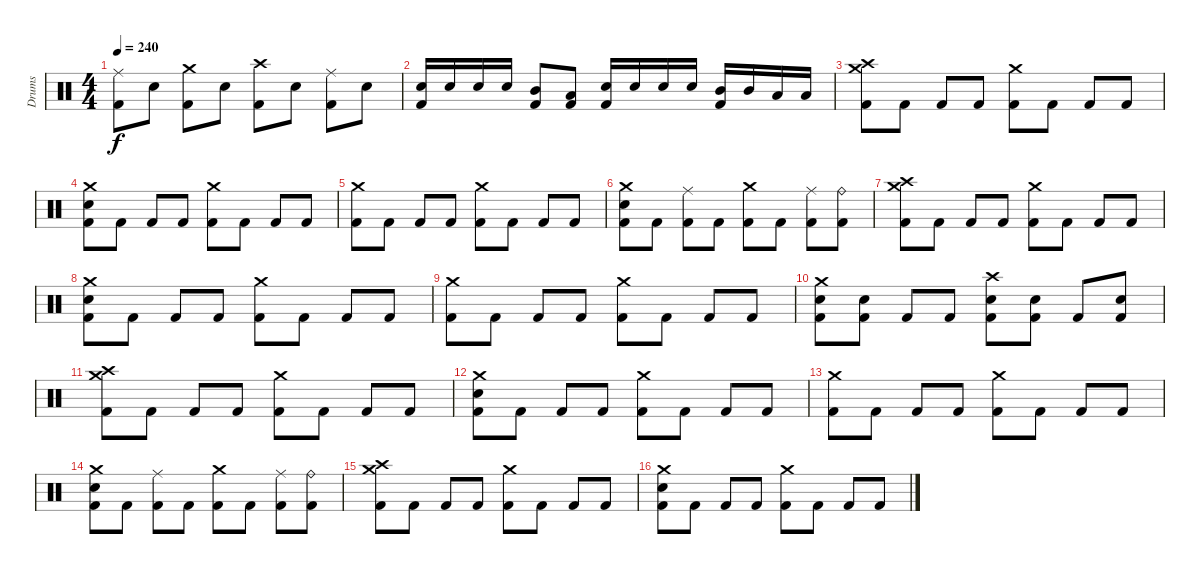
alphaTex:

\track ("Drums" "Drums") {instrument percussion}
\staff {score}
\articulation defaults
\ts (4 4)
\tempo 240
\clef neutral
\ks c
("Ride (middle)" "Kick (hit) 2").8{dy f} "Electric Snare (hit)".8 ("Crash medium (hit)" "Kick (hit) 2").8 "Electric Snare (hit)".8 ("Crash high (hit)" "Kick (hit) 2").8 "Electric Snare (hit)".8 ("Ride (middle)" "Kick (hit) 2").8 "Electric Snare (hit)".8 |
("Electric Snare (hit)" "Kick (hit) 2").16 "Electric Snare (hit)".16 "Electric Snare (hit)".16 "Electric Snare (hit)".16 ("Mid Tom (hit)" "Kick (hit) 2").8 ("Low Tom (hit)" "Kick (hit) 2").8 ("Electric Snare (hit)" "Kick (hit) 2").16 "Electric Snare (hit)".16 "Electric Snare (hit)".16 "Electric Snare (hit)".16 ("Mid Tom (hit)" "Kick (hit) 2").16 "Mid Tom (hit)".16 "Low Tom (hit)".16 "Low Tom (hit)".16 |
("Crash medium (hit)" "Crash high (hit)" "Kick (hit) 2").8 "Kick (hit) 2".8 "Kick (hit) 2".8 "Kick (hit) 2".8 ("Crash medium (hit)" "Kick (hit) 2").8 "Kick (hit) 2".8 "Kick (hit) 2".8 "Kick (hit) 2".8 |
("Crash medium (hit)" "Electric Snare (hit)" "Kick (hit) 2").8 "Kick (hit) 2".8 "Kick (hit) 2".8 "Kick (hit) 2".8 ("Crash medium (hit)" "Kick (hit) 2").8 "Kick (hit) 2".8 "Kick (hit) 2".8 "Kick (hit) 2".8 |
("Crash medium (hit)" "Kick (hit) 2").8 "Kick (hit) 2".8 "Kick (hit) 2".8 "Kick (hit) 2".8 ("Crash medium (hit)" "Kick (hit) 2").8 "Kick (hit) 2".8 "Kick (hit) 2".8 "Kick (hit) 2".8 |
("Crash medium (hit)" "Electric Snare (hit)" "Kick (hit) 2").8 "Kick (hit) 2".8 ("Ride (middle)" "Kick (hit) 2").8 "Kick (hit) 2".8 ("Crash medium (hit)" "Kick (hit) 2").8 "Kick (hit) 2".8 ("Ride (middle)" "Kick (hit) 2").8 ("Ride (bell)" "Kick (hit) 2").8 |
("Crash medium (hit)" "Crash high (hit)" "Kick (hit) 2").8 "Kick (hit) 2".8 "Kick (hit) 2".8 "Kick (hit) 2".8 ("Crash medium (hit)" "Kick (hit) 2").8 "Kick (hit) 2".8 "Kick (hit) 2".8 "Kick (hit) 2".8 |
("Crash medium (hit)" "Electric Snare (hit)" "Kick (hit) 2").8 "Kick (hit) 2".8 "Kick (hit) 2".8 "Kick (hit) 2".8 ("Crash medium (hit)" "Kick (hit) 2").8 "Kick (hit) 2".8 "Kick (hit) 2".8 "Kick (hit) 2".8 |
("Crash medium (hit)" "Kick (hit) 2").8 "Kick (hit) 2".8 "Kick (hit) 2".8 "Kick (hit) 2".8 ("Crash medium (hit)" "Kick (hit) 2").8 "Kick (hit) 2".8 "Kick (hit) 2".8 "Kick (hit) 2".8 |
("Crash medium (hit)" "Electric Snare (hit)" "Kick (hit) 2").8 ("Electric Snare (hit)" "Kick (hit) 2").8 "Kick (hit) 2".8 "Kick (hit) 2".8 ("Crash high (hit)" "Electric Snare (hit)" "Kick (hit) 2").8 ("Electric Snare (hit)" "Kick (hit) 2").8 "Kick (hit) 2".8 ("Electric Snare (hit)" "Kick (hit) 2").8 |
("Crash medium (hit)" "Crash high (hit)" "Kick (hit) 2").8 "Kick (hit) 2".8 "Kick (hit) 2".8 "Kick (hit) 2".8 ("Crash medium (hit)" "Kick (hit) 2").8 "Kick (hit) 2".8 "Kick (hit) 2".8 "Kick (hit) 2".8 |
("Crash medium (hit)" "Electric Snare (hit)" "Kick (hit) 2").8 "Kick (hit) 2".8 "Kick (hit) 2".8 "Kick (hit) 2".8 ("Crash medium (hit)" "Kick (hit) 2").8 "Kick (hit) 2".8 "Kick (hit) 2".8 "Kick (hit) 2".8 |
("Crash medium (hit)" "Kick (hit) 2").8 "Kick (hit) 2".8 "Kick (hit) 2".8 "Kick (hit) 2".8 ("Crash medium (hit)" "Kick (hit) 2").8 "Kick (hit) 2".8 "Kick (hit) 2".8 "Kick (hit) 2".8 |
("Crash medium (hit)" "Electric Snare (hit)" "Kick (hit) 2").8 "Kick (hit) 2".8 ("Ride (middle)" "Kick (hit) 2").8 "Kick (hit) 2".8 ("Crash medium (hit)" "Kick (hit) 2").8 "Kick (hit) 2".8 ("Ride (middle)" "Kick (hit) 2").8 ("Ride (bell)" "Kick (hit) 2").8 |
("Crash medium (hit)" "Crash high (hit)" "Kick (hit) 2").8 "Kick (hit) 2".8 "Kick (hit) 2".8 "Kick (hit) 2".8 ("Crash medium (hit)" "Kick (hit) 2").8 "Kick (hit) 2".8 "Kick (hit) 2".8 "Kick (hit) 2".8 |
("Crash medium (hit)" "Electric Snare (hit)" "Kick (hit) 2").8 "Kick (hit) 2".8 "Kick (hit) 2".8 "Kick (hit) 2".8 ("Crash medium (hit)" "Kick (hit) 2").8 "Kick (hit) 2".8 "Kick (hit) 2".8 "Kick (hit) 2".8
